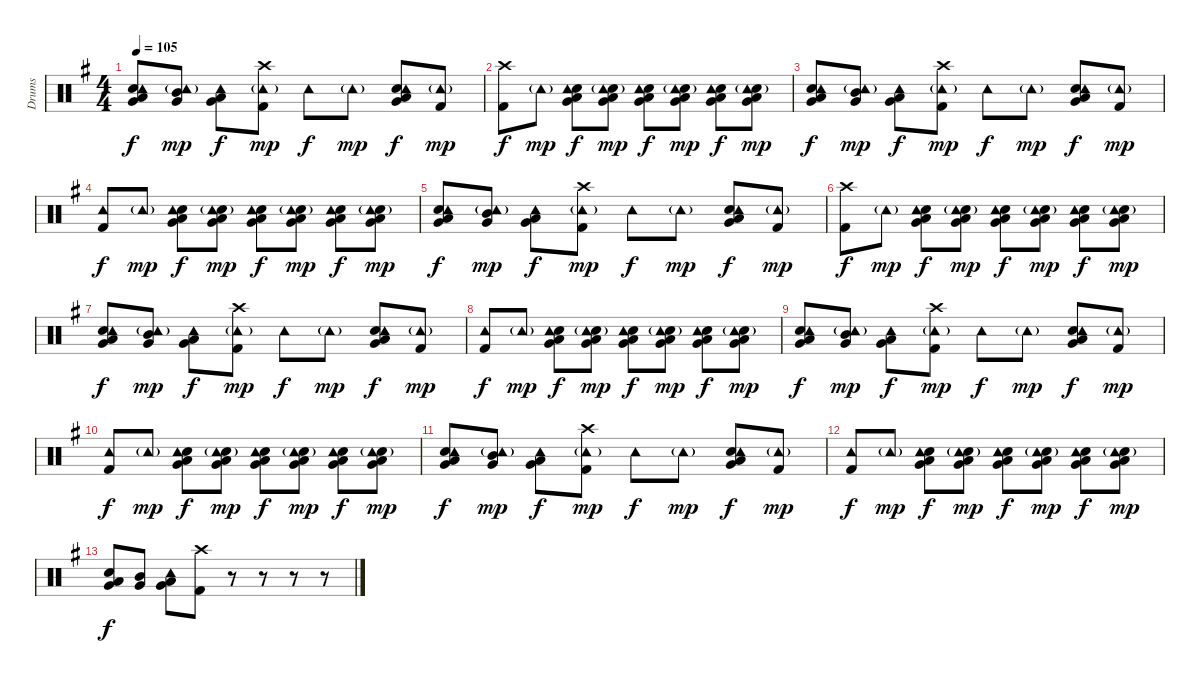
\track ("Drums" "Drums") {instrument percussion}
\staff {score}
\articulation defaults
\ts (4 4)
\tempo 105
\clef neutral
\ks g
("Snare (hit) 2" "Low Tom (hit)" "Very Low Tom (hit)" "Tambourine (hit)").8{dy f} ("Mid Tom (hit)" "Very Low Tom (hit)" "Tambourine (hit)"{g}).8{dy mp} ("Low Tom (hit)" "Very Low Tom (hit)" "Tambourine (hit)").8{dy f} ("Kick (hit) 2" "Crash high (hit)" "Tambourine (hit)"{g}).8{dy mp} "Tambourine (hit)".8{dy f} "Tambourine (hit)"{g}.8{dy mp} ("Snare (hit) 2" "Low Tom (hit)" "Very Low Tom (hit)" "Tambourine (hit)").8{dy f} ("Kick (hit) 2" "Tambourine (hit)"{g}).8{dy mp} |
("Kick (hit) 2" "Crash high (hit)").8{dy f} "Tambourine (hit)"{g}.8{dy mp} ("Snare (hit) 2" "Low Tom (hit)" "Very Low Tom (hit)" "Tambourine (hit)").8{dy f} ("Snare (hit) 2" "Low Tom (hit)" "Very Low Tom (hit)" "Tambourine (hit)"{g}).8{dy mp} ("Snare (hit) 2" "Low Tom (hit)" "Very Low Tom (hit)" "Tambourine (hit)").8{dy f} ("Snare (hit) 2" "Low Tom (hit)" "Very Low Tom (hit)" "Tambourine (hit)"{g}).8{dy mp} ("Snare (hit) 2" "Low Tom (hit)" "Very Low Tom (hit)" "Tambourine (hit)").8{dy f} ("Snare (hit) 2" "Low Tom (hit)" "Very Low Tom (hit)" "Tambourine (hit)"{g}).8{dy mp} |
("Snare (hit) 2" "Low Tom (hit)" "Very Low Tom (hit)" "Tambourine (hit)").8{dy f} ("Mid Tom (hit)" "Very Low Tom (hit)" "Tambourine (hit)"{g}).8{dy mp} ("Low Tom (hit)" "Very Low Tom (hit)" "Tambourine (hit)").8{dy f} ("Kick (hit) 2" "Crash high (hit)" "Tambourine (hit)"{g}).8{dy mp} "Tambourine (hit)".8{dy f} "Tambourine (hit)"{g}.8{dy mp} ("Snare (hit) 2" "Low Tom (hit)" "Very Low Tom (hit)" "Tambourine (hit)").8{dy f} ("Kick (hit) 2" "Tambourine (hit)"{g}).8{dy mp} |
("Kick (hit) 2" "Tambourine (hit)").8{dy f} "Tambourine (hit)"{g}.8{dy mp} ("Snare (hit) 2" "Low Tom (hit)" "Very Low Tom (hit)" "Tambourine (hit)").8{dy f} ("Snare (hit) 2" "Low Tom (hit)" "Very Low Tom (hit)" "Tambourine (hit)"{g}).8{dy mp} ("Snare (hit) 2" "Low Tom (hit)" "Very Low Tom (hit)" "Tambourine (hit)").8{dy f} ("Snare (hit) 2" "Low Tom (hit)" "Very Low Tom (hit)" "Tambourine (hit)"{g}).8{dy mp} ("Snare (hit) 2" "Low Tom (hit)" "Very Low Tom (hit)" "Tambourine (hit)").8{dy f} ("Snare (hit) 2" "Low Tom (hit)" "Very Low Tom (hit)" "Tambourine (hit)"{g}).8{dy mp} |
("Snare (hit) 2" "Low Tom (hit)" "Very Low Tom (hit)" "Tambourine (hit)").8{dy f} ("Mid Tom (hit)" "Very Low Tom (hit)" "Tambourine (hit)"{g}).8{dy mp} ("Low Tom (hit)" "Very Low Tom (hit)" "Tambourine (hit)").8{dy f} ("Kick (hit) 2" "Crash high (hit)" "Tambourine (hit)"{g}).8{dy mp} "Tambourine (hit)".8{dy f} "Tambourine (hit)"{g}.8{dy mp} ("Snare (hit) 2" "Low Tom (hit)" "Very Low Tom (hit)" "Tambourine (hit)").8{dy f} ("Kick (hit) 2" "Tambourine (hit)"{g}).8{dy mp} |
("Kick (hit) 2" "Crash high (hit)").8{dy f} "Tambourine (hit)"{g}.8{dy mp} ("Snare (hit) 2" "Low Tom (hit)" "Very Low Tom (hit)" "Tambourine (hit)").8{dy f} ("Snare (hit) 2" "Low Tom (hit)" "Very Low Tom (hit)" "Tambourine (hit)"{g}).8{dy mp} ("Snare (hit) 2" "Low Tom (hit)" "Very Low Tom (hit)" "Tambourine (hit)").8{dy f} ("Snare (hit) 2" "Low Tom (hit)" "Very Low Tom (hit)" "Tambourine (hit)"{g}).8{dy mp} ("Snare (hit) 2" "Low Tom (hit)" "Very Low Tom (hit)" "Tambourine (hit)").8{dy f} ("Snare (hit) 2" "Low Tom (hit)" "Very Low Tom (hit)" "Tambourine (hit)"{g}).8{dy mp} |
("Snare (hit) 2" "Low Tom (hit)" "Very Low Tom (hit)" "Tambourine (hit)").8{dy f} ("Mid Tom (hit)" "Very Low Tom (hit)" "Tambourine (hit)"{g}).8{dy mp} ("Low Tom (hit)" "Very Low Tom (hit)" "Tambourine (hit)").8{dy f} ("Kick (hit) 2" "Crash high (hit)" "Tambourine (hit)"{g}).8{dy mp} "Tambourine (hit)".8{dy f} "Tambourine (hit)"{g}.8{dy mp} ("Snare (hit) 2" "Low Tom (hit)" "Very Low Tom (hit)" "Tambourine (hit)").8{dy f} ("Kick (hit) 2" "Tambourine (hit)"{g}).8{dy mp} |
("Kick (hit) 2" "Tambourine (hit)").8{dy f} "Tambourine (hit)"{g}.8{dy mp} ("Snare (hit) 2" "Low Tom (hit)" "Very Low Tom (hit)" "Tambourine (hit)").8{dy f} ("Snare (hit) 2" "Low Tom (hit)" "Very Low Tom (hit)" "Tambourine (hit)"{g}).8{dy mp} ("Snare (hit) 2" "Low Tom (hit)" "Very Low Tom (hit)" "Tambourine (hit)").8{dy f} ("Snare (hit) 2" "Low Tom (hit)" "Very Low Tom (hit)" "Tambourine (hit)"{g}).8{dy mp} ("Snare (hit) 2" "Low Tom (hit)" "Very Low Tom (hit)" "Tambourine (hit)").8{dy f} ("Snare (hit) 2" "Low Tom (hit)" "Very Low Tom (hit)" "Tambourine (hit)"{g}).8{dy mp} |
("Snare (hit) 2" "Low Tom (hit)" "Very Low Tom (hit)" "Tambourine (hit)").8{dy f} ("Mid Tom (hit)" "Very Low Tom (hit)" "Tambourine (hit)"{g}).8{dy mp} ("Low Tom (hit)" "Very Low Tom (hit)" "Tambourine (hit)").8{dy f} ("Kick (hit) 2" "Crash high (hit)" "Tambourine (hit)"{g}).8{dy mp} "Tambourine (hit)".8{dy f} "Tambourine (hit)"{g}.8{dy mp} ("Snare (hit) 2" "Low Tom (hit)" "Very Low Tom (hit)" "Tambourine (hit)").8{dy f} ("Kick (hit) 2" "Tambourine (hit)"{g}).8{dy mp} |
("Kick (hit) 2" "Tambourine (hit)").8{dy f} "Tambourine (hit)"{g}.8{dy mp} ("Snare (hit) 2" "Low Tom (hit)" "Very Low Tom (hit)" "Tambourine (hit)").8{dy f} ("Snare (hit) 2" "Low Tom (hit)" "Very Low Tom (hit)" "Tambourine (hit)"{g}).8{dy mp} ("Snare (hit) 2" "Low Tom (hit)" "Very Low Tom (hit)" "Tambourine (hit)").8{dy f} ("Snare (hit) 2" "Low Tom (hit)" "Very Low Tom (hit)" "Tambourine (hit)"{g}).8{dy mp} ("Snare (hit) 2" "Low Tom (hit)" "Very Low Tom (hit)" "Tambourine (hit)").8{dy f} ("Snare (hit) 2" "Low Tom (hit)" "Very Low Tom (hit)" "Tambourine (hit)"{g}).8{dy mp} |
("Snare (hit) 2" "Low Tom (hit)" "Very Low Tom (hit)" "Tambourine (hit)").8{dy f} ("Mid Tom (hit)" "Very Low Tom (hit)" "Tambourine (hit)"{g}).8{dy mp} ("Low Tom (hit)" "Very Low Tom (hit)" "Tambourine (hit)").8{dy f} ("Kick (hit) 2" "Crash high (hit)" "Tambourine (hit)"{g}).8{dy mp} "Tambourine (hit)".8{dy f} "Tambourine (hit)"{g}.8{dy mp} ("Snare (hit) 2" "Low Tom (hit)" "Very Low Tom (hit)" "Tambourine (hit)").8{dy f} ("Kick (hit) 2" "Tambourine (hit)"{g}).8{dy mp} |
("Kick (hit) 2" "Tambourine (hit)").8{dy f} "Tambourine (hit)"{g}.8{dy mp} ("Snare (hit) 2" "Low Tom (hit)" "Very Low Tom (hit)" "Tambourine (hit)").8{dy f} ("Snare (hit) 2" "Low Tom (hit)" "Very Low Tom (hit)" "Tambourine (hit)"{g}).8{dy mp} ("Snare (hit) 2" "Low Tom (hit)" "Very Low Tom (hit)" "Tambourine (hit)").8{dy f} ("Snare (hit) 2" "Low Tom (hit)" "Very Low Tom (hit)" "Tambourine (hit)"{g}).8{dy mp} ("Snare (hit) 2" "Low Tom (hit)" "Very Low Tom (hit)" "Tambourine (hit)").8{dy f} ("Snare (hit) 2" "Low Tom (hit)" "Very Low Tom (hit)" "Tambourine (hit)"{g}).8{dy mp} |
("Snare (hit) 2" "Low Tom (hit)" "Very Low Tom (hit)").8{dy f} ("Mid Tom (hit)" "Very Low Tom (hit)").8 ("Low Tom (hit)" "Very Low Tom (hit)" "Tambourine (hit)").8 ("Kick (hit) 2" "Crash high (hit)").8 r.8 r.8 r.8 r.8
